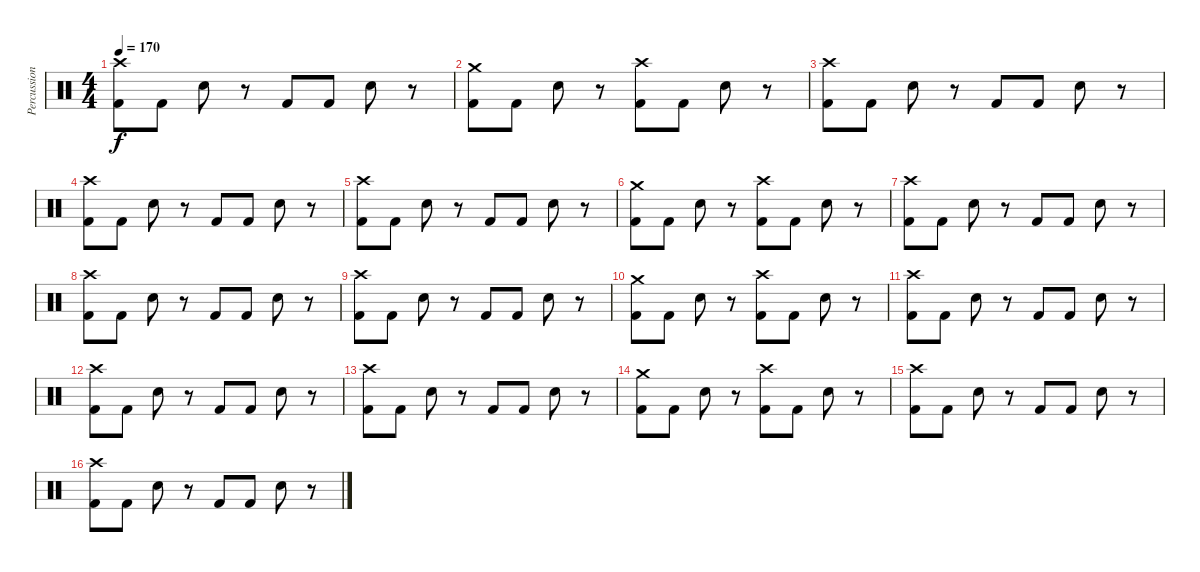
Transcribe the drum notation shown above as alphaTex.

\track ("Percussion" "Percussion") {instrument percussion}
\staff {score}
\articulation defaults
\ts (4 4)
\tempo 170
\clef neutral
\ks c
("Crash high (hit)" "Kick (hit) 2").8{dy f} "Kick (hit) 2".8 "Electric Snare (hit)".8 r.8 "Kick (hit) 2".8 "Kick (hit) 2".8 "Electric Snare (hit)".8 r.8 |
("Crash medium (hit)" "Kick (hit) 2").8 "Kick (hit) 2".8 "Electric Snare (hit)".8 r.8 ("Crash high (hit)" "Kick (hit) 2").8 "Kick (hit) 2".8 "Electric Snare (hit)".8 r.8 |
("Crash high (hit)" "Kick (hit) 2").8 "Kick (hit) 2".8 "Electric Snare (hit)".8 r.8 "Kick (hit) 2".8 "Kick (hit) 2".8 "Electric Snare (hit)".8 r.8 |
("Crash high (hit)" "Kick (hit) 2").8 "Kick (hit) 2".8 "Electric Snare (hit)".8 r.8 "Kick (hit) 2".8 "Kick (hit) 2".8 "Electric Snare (hit)".8 r.8 |
("Crash high (hit)" "Kick (hit) 2").8 "Kick (hit) 2".8 "Electric Snare (hit)".8 r.8 "Kick (hit) 2".8 "Kick (hit) 2".8 "Electric Snare (hit)".8 r.8 |
("Crash medium (hit)" "Kick (hit) 2").8 "Kick (hit) 2".8 "Electric Snare (hit)".8 r.8 ("Crash high (hit)" "Kick (hit) 2").8 "Kick (hit) 2".8 "Electric Snare (hit)".8 r.8 |
("Crash high (hit)" "Kick (hit) 2").8 "Kick (hit) 2".8 "Electric Snare (hit)".8 r.8 "Kick (hit) 2".8 "Kick (hit) 2".8 "Electric Snare (hit)".8 r.8 |
("Crash high (hit)" "Kick (hit) 2").8 "Kick (hit) 2".8 "Electric Snare (hit)".8 r.8 "Kick (hit) 2".8 "Kick (hit) 2".8 "Electric Snare (hit)".8 r.8 |
("Crash high (hit)" "Kick (hit) 2").8 "Kick (hit) 2".8 "Electric Snare (hit)".8 r.8 "Kick (hit) 2".8 "Kick (hit) 2".8 "Electric Snare (hit)".8 r.8 |
("Crash medium (hit)" "Kick (hit) 2").8 "Kick (hit) 2".8 "Electric Snare (hit)".8 r.8 ("Crash high (hit)" "Kick (hit) 2").8 "Kick (hit) 2".8 "Electric Snare (hit)".8 r.8 |
("Crash high (hit)" "Kick (hit) 2").8 "Kick (hit) 2".8 "Electric Snare (hit)".8 r.8 "Kick (hit) 2".8 "Kick (hit) 2".8 "Electric Snare (hit)".8 r.8 |
("Crash high (hit)" "Kick (hit) 2").8 "Kick (hit) 2".8 "Electric Snare (hit)".8 r.8 "Kick (hit) 2".8 "Kick (hit) 2".8 "Electric Snare (hit)".8 r.8 |
("Crash high (hit)" "Kick (hit) 2").8 "Kick (hit) 2".8 "Electric Snare (hit)".8 r.8 "Kick (hit) 2".8 "Kick (hit) 2".8 "Electric Snare (hit)".8 r.8 |
("Crash medium (hit)" "Kick (hit) 2").8 "Kick (hit) 2".8 "Electric Snare (hit)".8 r.8 ("Crash high (hit)" "Kick (hit) 2").8 "Kick (hit) 2".8 "Electric Snare (hit)".8 r.8 |
("Crash high (hit)" "Kick (hit) 2").8 "Kick (hit) 2".8 "Electric Snare (hit)".8 r.8 "Kick (hit) 2".8 "Kick (hit) 2".8 "Electric Snare (hit)".8 r.8 |
("Crash high (hit)" "Kick (hit) 2").8 "Kick (hit) 2".8 "Electric Snare (hit)".8 r.8 "Kick (hit) 2".8 "Kick (hit) 2".8 "Electric Snare (hit)".8 r.8
